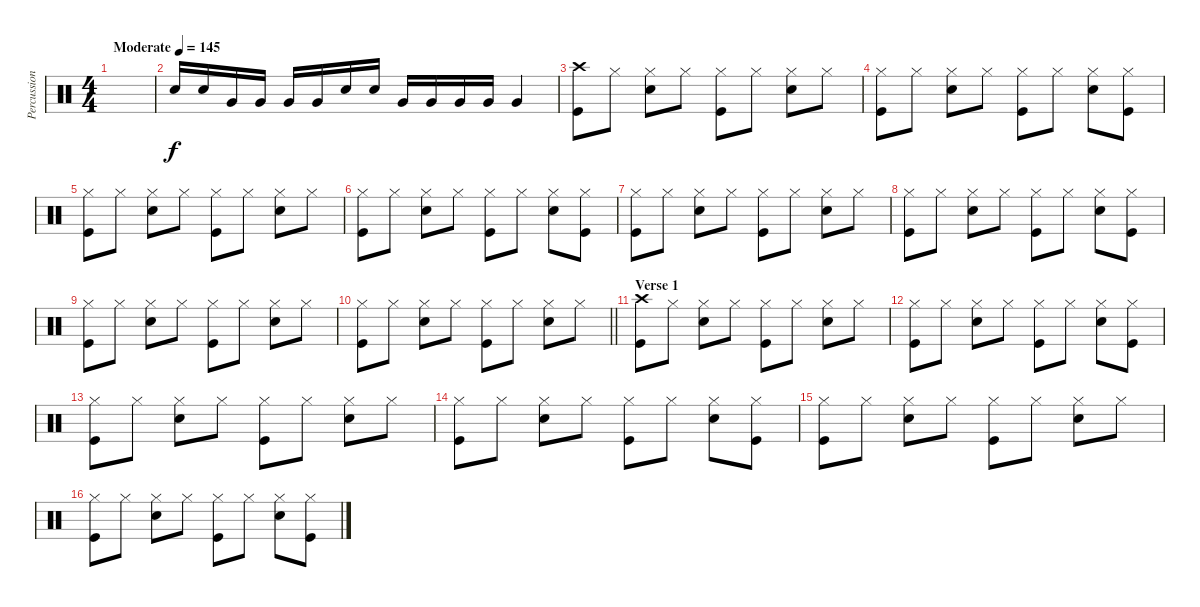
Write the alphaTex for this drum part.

\track ("Percussion" "Percussion") {instrument percussion}
\staff {score}
\articulation defaults
\ts (4 4)
\tempo (145 "Moderate")
\clef neutral
\ks c
|
"Snare (hit) 2".16 "Snare (hit) 2".16 "Very Low Tom (hit)".16 "Very Low Tom (hit)".16 "Very Low Tom (hit)".16 "Very Low Tom (hit)".16 "Snare (hit) 2".16 "Snare (hit) 2".16 "Very Low Tom (hit)".16 "Very Low Tom (hit)".16 "Very Low Tom (hit)".16 "Very Low Tom (hit)".16 "Very Low Tom (hit)".4 |
("Kick (hit)" "Crash high (hit)").8 "Hi-Hat (closed)".8 ("Hi-Hat (closed)" "Snare (hit) 2").8 "Hi-Hat (closed)".8 ("Kick (hit)" "Hi-Hat (closed)").8 "Hi-Hat (closed)".8 ("Hi-Hat (closed)" "Snare (hit) 2").8 "Hi-Hat (closed)".8 |
("Kick (hit)" "Hi-Hat (closed)").8 "Hi-Hat (closed)".8 ("Hi-Hat (closed)" "Snare (hit) 2").8 "Hi-Hat (closed)".8 ("Kick (hit)" "Hi-Hat (closed)").8 "Hi-Hat (closed)".8 ("Hi-Hat (closed)" "Snare (hit) 2").8 ("Kick (hit)" "Hi-Hat (closed)").8 |
("Kick (hit)" "Hi-Hat (closed)").8 "Hi-Hat (closed)".8 ("Hi-Hat (closed)" "Snare (hit) 2").8 "Hi-Hat (closed)".8 ("Kick (hit)" "Hi-Hat (closed)").8 "Hi-Hat (closed)".8 ("Hi-Hat (closed)" "Snare (hit) 2").8 "Hi-Hat (closed)".8 |
("Kick (hit)" "Hi-Hat (closed)").8 "Hi-Hat (closed)".8 ("Hi-Hat (closed)" "Snare (hit) 2").8 "Hi-Hat (closed)".8 ("Kick (hit)" "Hi-Hat (closed)").8 "Hi-Hat (closed)".8 ("Hi-Hat (closed)" "Snare (hit) 2").8 ("Kick (hit)" "Hi-Hat (closed)").8 |
("Kick (hit)" "Hi-Hat (closed)").8 "Hi-Hat (closed)".8 ("Hi-Hat (closed)" "Snare (hit) 2").8 "Hi-Hat (closed)".8 ("Kick (hit)" "Hi-Hat (closed)").8 "Hi-Hat (closed)".8 ("Hi-Hat (closed)" "Snare (hit) 2").8 "Hi-Hat (closed)".8 |
("Kick (hit)" "Hi-Hat (closed)").8 "Hi-Hat (closed)".8 ("Hi-Hat (closed)" "Snare (hit) 2").8 "Hi-Hat (closed)".8 ("Kick (hit)" "Hi-Hat (closed)").8 "Hi-Hat (closed)".8 ("Hi-Hat (closed)" "Snare (hit) 2").8 ("Kick (hit)" "Hi-Hat (closed)").8 |
("Kick (hit)" "Hi-Hat (closed)").8 "Hi-Hat (closed)".8 ("Hi-Hat (closed)" "Snare (hit) 2").8 "Hi-Hat (closed)".8 ("Kick (hit)" "Hi-Hat (closed)").8 "Hi-Hat (closed)".8 ("Hi-Hat (closed)" "Snare (hit) 2").8 "Hi-Hat (closed)".8 |
\barLineRight lightlight
("Kick (hit)" "Hi-Hat (closed)").8 "Hi-Hat (closed)".8 ("Hi-Hat (closed)" "Snare (hit) 2").8 "Hi-Hat (closed)".8 ("Kick (hit)" "Hi-Hat (closed)").8 "Hi-Hat (closed)".8 ("Hi-Hat (closed)" "Snare (hit) 2").8 "Hi-Hat (closed)".8 |
\section ("" "Verse 1")
("Kick (hit)" "Crash high (hit)").8 "Hi-Hat (closed)".8 ("Hi-Hat (closed)" "Snare (hit) 2").8 "Hi-Hat (closed)".8 ("Kick (hit)" "Hi-Hat (closed)").8 "Hi-Hat (closed)".8 ("Hi-Hat (closed)" "Snare (hit) 2").8 "Hi-Hat (closed)".8 |
("Kick (hit)" "Hi-Hat (closed)").8 "Hi-Hat (closed)".8 ("Hi-Hat (closed)" "Snare (hit) 2").8 "Hi-Hat (closed)".8 ("Kick (hit)" "Hi-Hat (closed)").8 "Hi-Hat (closed)".8 ("Hi-Hat (closed)" "Snare (hit) 2").8 ("Kick (hit)" "Hi-Hat (closed)").8 |
("Kick (hit)" "Hi-Hat (closed)").8 "Hi-Hat (closed)".8 ("Hi-Hat (closed)" "Snare (hit) 2").8 "Hi-Hat (closed)".8 ("Kick (hit)" "Hi-Hat (closed)").8 "Hi-Hat (closed)".8 ("Hi-Hat (closed)" "Snare (hit) 2").8 "Hi-Hat (closed)".8 |
("Kick (hit)" "Hi-Hat (closed)").8 "Hi-Hat (closed)".8 ("Hi-Hat (closed)" "Snare (hit) 2").8 "Hi-Hat (closed)".8 ("Kick (hit)" "Hi-Hat (closed)").8 "Hi-Hat (closed)".8 ("Hi-Hat (closed)" "Snare (hit) 2").8 ("Kick (hit)" "Hi-Hat (closed)").8 |
("Kick (hit)" "Hi-Hat (closed)").8 "Hi-Hat (closed)".8 ("Hi-Hat (closed)" "Snare (hit) 2").8 "Hi-Hat (closed)".8 ("Kick (hit)" "Hi-Hat (closed)").8 "Hi-Hat (closed)".8 ("Hi-Hat (closed)" "Snare (hit) 2").8 "Hi-Hat (closed)".8 |
("Kick (hit)" "Hi-Hat (closed)").8 "Hi-Hat (closed)".8 ("Hi-Hat (closed)" "Snare (hit) 2").8 "Hi-Hat (closed)".8 ("Kick (hit)" "Hi-Hat (closed)").8 "Hi-Hat (closed)".8 ("Hi-Hat (closed)" "Snare (hit) 2").8 ("Kick (hit)" "Hi-Hat (closed)").8
